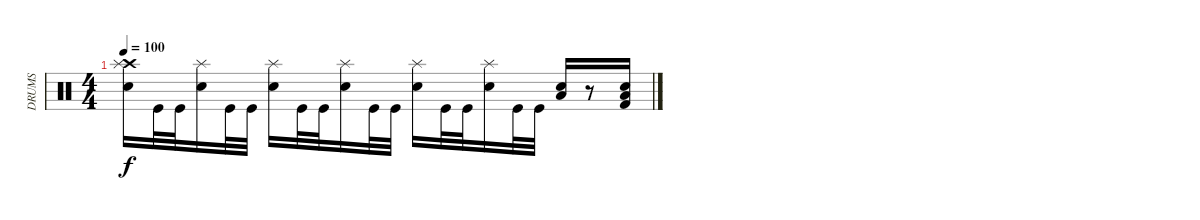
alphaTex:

\track ("DRUMS" "DRUMS") {instrument percussion}
\staff {score}
\articulation defaults
\ts (4 4)
\tempo 100
\clef neutral
\ks c
("Crash high (hit)" "Splash (hit)" "Snare (hit) 2").16{dy f} "Kick (hit)".32 "Kick (hit)".32 ("Splash (hit)" "Snare (hit) 2").16 "Kick (hit)".32 "Kick (hit)".32 ("Splash (hit)" "Snare (hit) 2").16 "Kick (hit)".32 "Kick (hit)".32 ("Splash (hit)" "Snare (hit) 2").16 "Kick (hit)".32 "Kick (hit)".32 ("Splash (hit)" "Snare (hit) 2").16 "Kick (hit)".32 "Kick (hit)".32 ("Splash (hit)" "Snare (hit) 2").16 "Kick (hit)".32 "Kick (hit)".32 ("Low Tom (hit)" "Snare (hit) 2").16 r.8 ("Low Tom (hit)" "Electric Snare (hit)" "Kick (hit) 2").16
